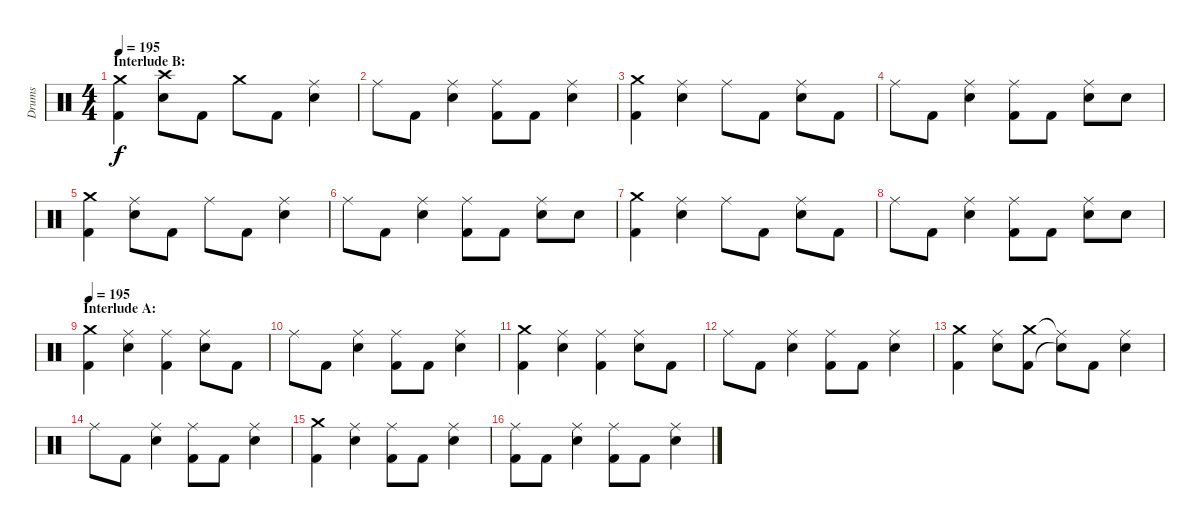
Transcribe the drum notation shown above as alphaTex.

\track ("Drums" "Drums") {instrument percussion}
\staff {score}
\articulation defaults
\ts (4 4)
\section ("" "Interlude B:")
\tempo 195
\clef neutral
\ks c
("Crash medium (hit)" "Kick (hit) 2").4{dy f} ("Crash high (hit)" "Electric Snare (hit)").8 "Kick (hit) 2".8 "Crash medium (hit)".8 "Kick (hit) 2".8 ("Ride (middle)" "Electric Snare (hit)").4 |
"Ride (middle)".8 "Kick (hit) 2".8 ("Ride (middle)" "Electric Snare (hit)").4 ("Ride (middle)" "Kick (hit) 2").8 "Kick (hit) 2".8 ("Ride (middle)" "Electric Snare (hit)").4 |
("Crash medium (hit)" "Kick (hit) 2").4 ("Ride (middle)" "Electric Snare (hit)").4 "Ride (middle)".8 "Kick (hit) 2".8 ("Ride (middle)" "Electric Snare (hit)").8 "Kick (hit) 2".8 |
"Ride (middle)".8 "Kick (hit) 2".8 ("Ride (middle)" "Electric Snare (hit)").4 ("Ride (middle)" "Kick (hit) 2").8 "Kick (hit) 2".8 ("Ride (middle)" "Electric Snare (hit)").8 "Electric Snare (hit)".8 |
("Crash medium (hit)" "Kick (hit) 2").4 ("Ride (middle)" "Electric Snare (hit)").8 "Kick (hit) 2".8 "Ride (middle)".8 "Kick (hit) 2".8 ("Ride (middle)" "Electric Snare (hit)").4 |
"Ride (middle)".8 "Kick (hit) 2".8 ("Ride (middle)" "Electric Snare (hit)").4 ("Ride (middle)" "Kick (hit) 2").8 "Kick (hit) 2".8 ("Ride (middle)" "Electric Snare (hit)").8 "Electric Snare (hit)".8 |
("Crash medium (hit)" "Kick (hit) 2").4 ("Ride (middle)" "Electric Snare (hit)").4 "Ride (middle)".8 "Kick (hit) 2".8 ("Ride (middle)" "Electric Snare (hit)").8 "Kick (hit) 2".8 |
"Ride (middle)".8 "Kick (hit) 2".8 ("Ride (middle)" "Electric Snare (hit)").4 ("Ride (middle)" "Kick (hit) 2").8 "Kick (hit) 2".8 ("Ride (middle)" "Electric Snare (hit)").8 "Electric Snare (hit)".8 |
\section ("" "Interlude A:")
\tempo 195
("Crash medium (hit)" "Kick (hit) 2").4 ("Ride (middle)" "Electric Snare (hit)").4 ("Ride (middle)" "Kick (hit) 2").4 ("Ride (middle)" "Electric Snare (hit)").8 "Kick (hit) 2".8 |
"Ride (middle)".8 "Kick (hit) 2".8 ("Ride (middle)" "Electric Snare (hit)").4 ("Ride (middle)" "Kick (hit) 2").8 "Kick (hit) 2".8 ("Ride (middle)" "Electric Snare (hit)").4 |
("Crash medium (hit)" "Kick (hit) 2").4 ("Ride (middle)" "Electric Snare (hit)").4 ("Ride (middle)" "Kick (hit) 2").4 ("Ride (middle)" "Electric Snare (hit)").8 "Kick (hit) 2".8 |
"Ride (middle)".8 "Kick (hit) 2".8 ("Ride (middle)" "Electric Snare (hit)").4 ("Ride (middle)" "Kick (hit) 2").8 "Kick (hit) 2".8 ("Ride (middle)" "Electric Snare (hit)").4 |
("Crash medium (hit)" "Kick (hit) 2").4 ("Ride (middle)" "Electric Snare (hit)").8 ("Crash medium (hit)" "Kick (hit) 2").8 ("Ride (middle)"{t} "Snare (hit)"{t}).8 "Kick (hit) 2".8 ("Ride (middle)" "Electric Snare (hit)").4 |
"Ride (middle)".8 "Kick (hit) 2".8 ("Ride (middle)" "Electric Snare (hit)").4 ("Ride (middle)" "Kick (hit) 2").8 "Kick (hit) 2".8 ("Ride (middle)" "Electric Snare (hit)").4 |
("Crash medium (hit)" "Kick (hit) 2").4 ("Ride (middle)" "Electric Snare (hit)").4 ("Ride (middle)" "Kick (hit) 2").8 "Kick (hit) 2".8 ("Ride (middle)" "Electric Snare (hit)").4 |
("Ride (middle)" "Kick (hit) 2").8 "Kick (hit) 2".8 ("Ride (middle)" "Electric Snare (hit)").4 ("Ride (middle)" "Kick (hit) 2").8 "Kick (hit) 2".8 ("Ride (middle)" "Electric Snare (hit)").4
